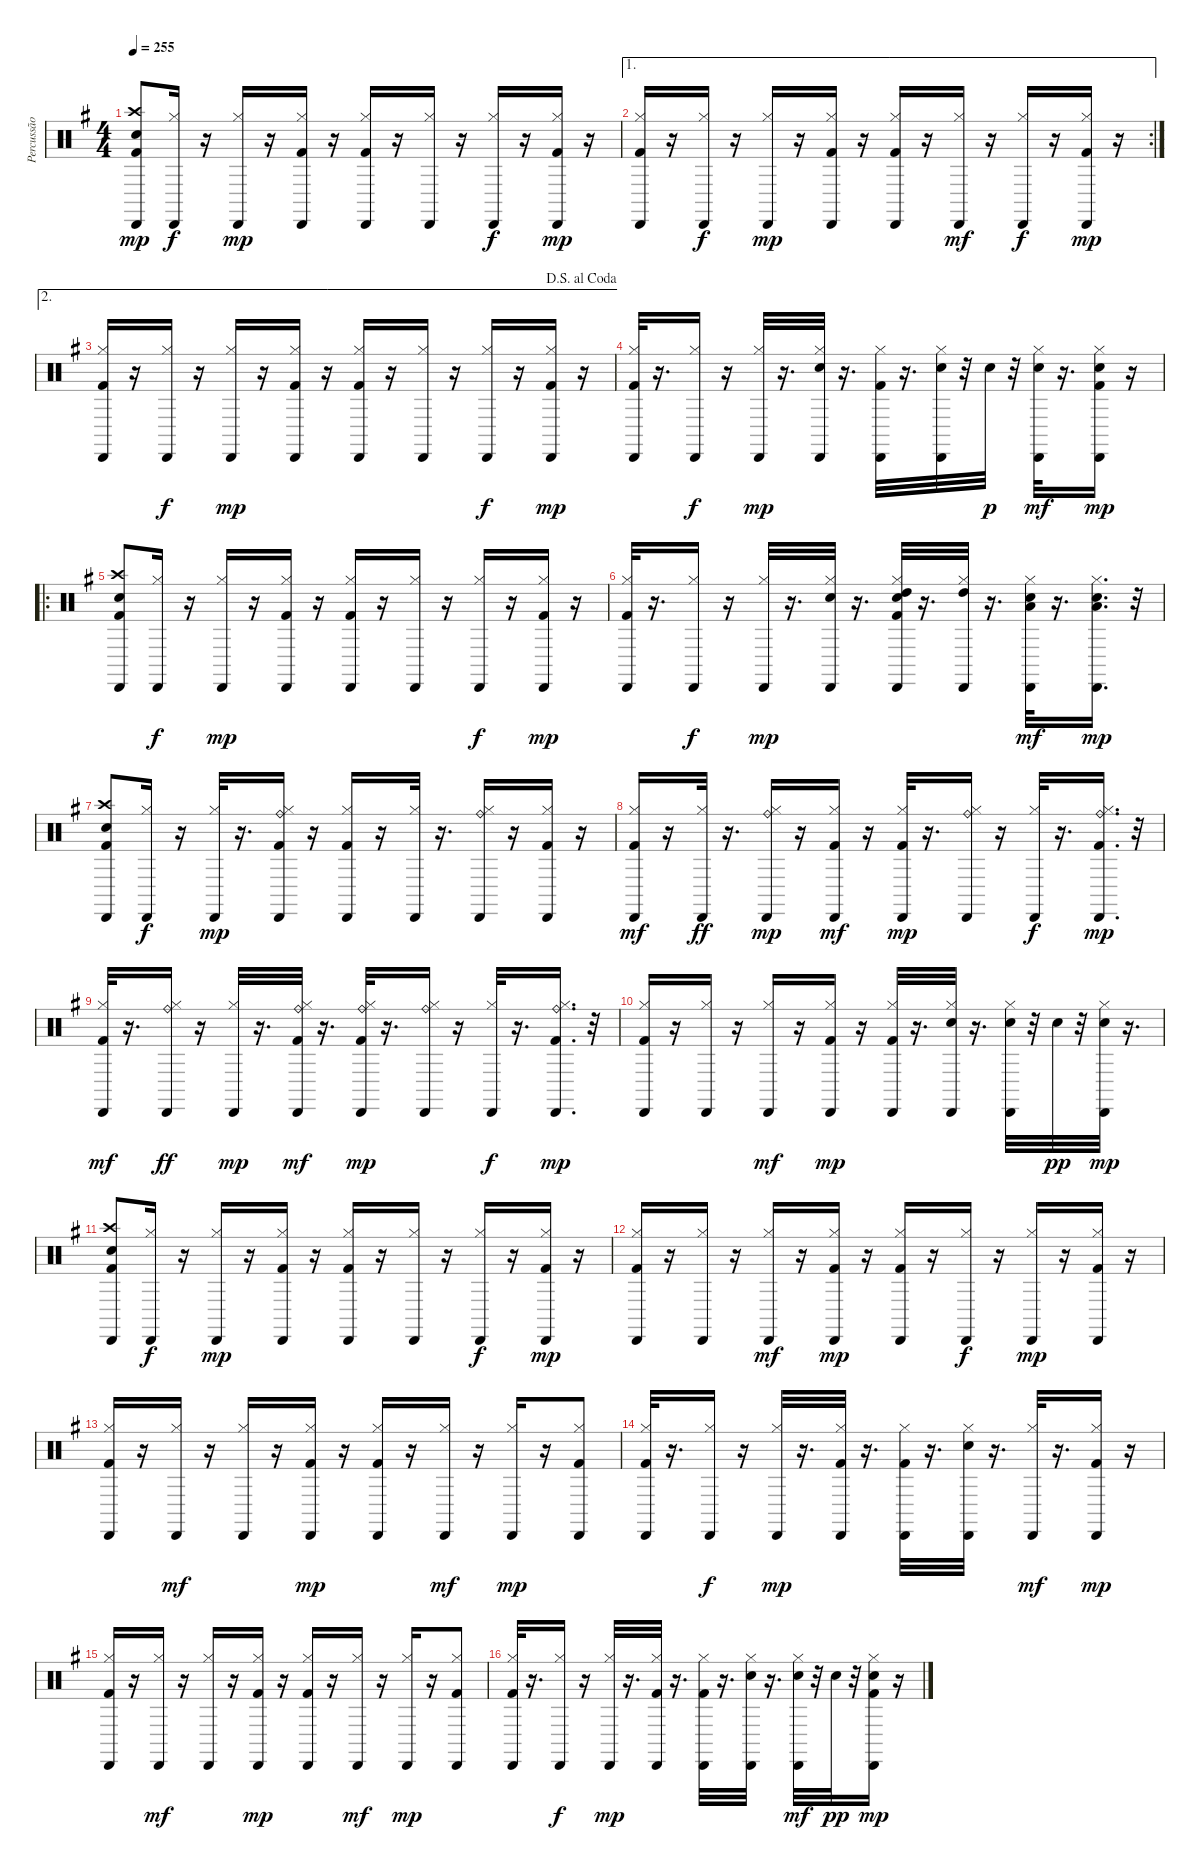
\track ("Percussão" "Percussão") {instrument percussion}
\staff {score}
\articulation defaults
\ts (4 4)
\tempo 255
\clef neutral
\ks g
("Electric Snare (hit)" "Crash high (hit)" "Kick (hit) 2" "Cabasa (hit)").8{dy mp} ("Hi-Hat (closed)" "Cabasa (hit)").16{dy f} r.16 ("Hi-Hat (closed)" "Cabasa (hit)").16{dy mp} r.16 ("Kick (hit) 2" "Hi-Hat (closed)" "Cabasa (hit)").16 r.16 ("Kick (hit) 2" "Hi-Hat (closed)" "Cabasa (hit)").16 r.16 ("Hi-Hat (closed)" "Cabasa (hit)").16 r.16 ("Hi-Hat (closed)" "Cabasa (hit)").16{dy f} r.16 ("Kick (hit) 2" "Hi-Hat (closed)" "Cabasa (hit)").16{dy mp} r.16 |
\ae 1
\rc 2
("Kick (hit) 2" "Hi-Hat (closed)" "Cabasa (hit)").16 r.16 ("Hi-Hat (closed)" "Cabasa (hit)").16{dy f} r.16 ("Hi-Hat (closed)" "Cabasa (hit)").16{dy mp} r.16 ("Kick (hit) 2" "Hi-Hat (closed)" "Cabasa (hit)").16 r.16 ("Kick (hit) 2" "Hi-Hat (closed)" "Cabasa (hit)").16 r.16 ("Hi-Hat (closed)" "Cabasa (hit)").16{dy mf} r.16 ("Hi-Hat (closed)" "Cabasa (hit)").16{dy f} r.16 ("Kick (hit) 2" "Hi-Hat (closed)" "Cabasa (hit)").16{dy mp} r.16 |
\ae 2
\jump dalsegnoalcoda
("Kick (hit) 2" "Hi-Hat (closed)" "Cabasa (hit)").16 r.16 ("Hi-Hat (closed)" "Cabasa (hit)").16{dy f} r.16 ("Hi-Hat (closed)" "Cabasa (hit)").16{dy mp} r.16 ("Kick (hit) 2" "Hi-Hat (closed)" "Cabasa (hit)").16 r.16 ("Kick (hit) 2" "Hi-Hat (closed)" "Cabasa (hit)").16 r.16 ("Hi-Hat (closed)" "Cabasa (hit)").16 r.16 ("Hi-Hat (closed)" "Cabasa (hit)").16{dy f} r.16 ("Kick (hit) 2" "Hi-Hat (closed)" "Cabasa (hit)").16{dy mp} r.16 |
("Kick (hit) 2" "Hi-Hat (closed)" "Cabasa (hit)").32 r.16{d} ("Hi-Hat (closed)" "Cabasa (hit)").16{dy f} r.16 ("Hi-Hat (closed)" "Cabasa (hit)").32{dy mp} r.16{d} ("Electric Snare (hit)" "Hi-Hat (closed)" "Cabasa (hit)").32 r.16{d} ("Kick (hit) 2" "Hi-Hat (closed)" "Cabasa (hit)").32 r.16{d} ("Electric Snare (hit)" "Hi-Hat (closed)" "Cabasa (hit)").32 r.32 "Snare (hit) 2".32{dy p} r.32 ("Electric Snare (hit)" "Hi-Hat (closed)" "Cabasa (hit)").32{dy mf} r.16{d} ("Electric Snare (hit)" "Kick (hit) 2" "Hi-Hat (closed)" "Cabasa (hit)").16{dy mp} r.16 |
\ro
("Electric Snare (hit)" "Crash high (hit)" "Kick (hit) 2" "Cabasa (hit)").8 ("Hi-Hat (closed)" "Cabasa (hit)").16{dy f} r.16 ("Hi-Hat (closed)" "Cabasa (hit)").16{dy mp} r.16 ("Kick (hit) 2" "Hi-Hat (closed)" "Cabasa (hit)").16 r.16 ("Kick (hit) 2" "Hi-Hat (closed)" "Cabasa (hit)").16 r.16 ("Hi-Hat (closed)" "Cabasa (hit)").16 r.16 ("Hi-Hat (closed)" "Cabasa (hit)").16{dy f} r.16 ("Kick (hit) 2" "Hi-Hat (closed)" "Cabasa (hit)").16{dy mp} r.16 |
("Kick (hit) 2" "Hi-Hat (closed)" "Cabasa (hit)").32 r.16{d} ("Hi-Hat (closed)" "Cabasa (hit)").16{dy f} r.16 ("Hi-Hat (closed)" "Cabasa (hit)").32{dy mp} r.16{d} ("Electric Snare (hit)" "Hi-Hat (closed)" "Cabasa (hit)").32 r.16{d} ("High Tom (hit)" "Electric Snare (hit)" "Kick (hit) 2" "Hi-Hat (closed)" "Cabasa (hit)").32 r.16{d} ("High Tom (hit)" "Hi-Hat (closed)" "Cabasa (hit)").32 r.16{d} ("Low Tom (hit)" "Electric Snare (hit)" "Hi-Hat (closed)" "Cabasa (hit)").32{dy mf} r.16{d} ("Low Tom (hit)" "Electric Snare (hit)" "Hi-Hat (closed)" "Cabasa (hit)").16{d dy mp} r.32 |
("Electric Snare (hit)" "Crash high (hit)" "Kick (hit) 2" "Cabasa (hit)").8 ("Hi-Hat (closed)" "Cabasa (hit)").16{dy f} r.16 ("Hi-Hat (closed)" "Cabasa (hit)").32{dy mp} r.16{d} ("Ride (bell)" "Kick (hit) 2" "Hi-Hat (closed)" "Cabasa (hit)").16 r.16 ("Kick (hit) 2" "Hi-Hat (closed)" "Cabasa (hit)").16 r.16 ("Hi-Hat (closed)" "Cabasa (hit)").32 r.16{d} ("Ride (bell)" "Hi-Hat (closed)" "Cabasa (hit)").16 r.16 ("Kick (hit) 2" "Hi-Hat (closed)" "Cabasa (hit)").16 r.16 |
("Kick (hit) 2" "Hi-Hat (closed)" "Cabasa (hit)").16{dy mf} r.16 ("Hi-Hat (closed)" "Cabasa (hit)").32{dy ff} r.16{d} ("Ride (bell)" "Hi-Hat (closed)" "Cabasa (hit)").16{dy mp} r.16 ("Kick (hit) 2" "Hi-Hat (closed)" "Cabasa (hit)").16{dy mf} r.16 ("Kick (hit) 2" "Hi-Hat (closed)" "Cabasa (hit)").32{dy mp} r.16{d} ("Ride (bell)" "Hi-Hat (closed)" "Cabasa (hit)").16 r.16 ("Hi-Hat (closed)" "Cabasa (hit)").32{dy f} r.16{d} ("Ride (bell)" "Kick (hit) 2" "Hi-Hat (closed)" "Cabasa (hit)").16{d dy mp} r.32 |
("Kick (hit) 2" "Hi-Hat (closed)" "Cabasa (hit)").32{dy mf} r.16{d} ("Ride (bell)" "Hi-Hat (closed)" "Cabasa (hit)").16{dy ff} r.16 ("Hi-Hat (closed)" "Cabasa (hit)").32{dy mp} r.16{d} ("Ride (bell)" "Kick (hit) 2" "Hi-Hat (closed)" "Cabasa (hit)").32{dy mf} r.16{d} ("Ride (bell)" "Kick (hit) 2" "Hi-Hat (closed)" "Cabasa (hit)").32{dy mp} r.16{d} ("Ride (bell)" "Hi-Hat (closed)" "Cabasa (hit)").16 r.16 ("Hi-Hat (closed)" "Cabasa (hit)").32{dy f} r.16{d} ("Ride (bell)" "Kick (hit) 2" "Hi-Hat (closed)" "Cabasa (hit)").16{d dy mp} r.32 |
("Kick (hit) 2" "Hi-Hat (closed)" "Cabasa (hit)").16 r.16 ("Hi-Hat (closed)" "Cabasa (hit)").16 r.16 ("Hi-Hat (closed)" "Cabasa (hit)").16{dy mf} r.16 ("Kick (hit) 2" "Hi-Hat (closed)" "Cabasa (hit)").16{dy mp} r.16 ("Kick (hit) 2" "Hi-Hat (closed)" "Cabasa (hit)").32 r.16{d} ("Snare (hit) 2" "Hi-Hat (closed)" "Cabasa (hit)").32 r.16{d} ("Electric Snare (hit)" "Hi-Hat (closed)" "Cabasa (hit)").32 r.32 "Snare (hit) 2".32{dy pp} r.32 ("Electric Snare (hit)" "Hi-Hat (closed)" "Cabasa (hit)").32{dy mp} r.16{d} |
("Electric Snare (hit)" "Crash high (hit)" "Kick (hit) 2" "Cabasa (hit)").8 ("Hi-Hat (closed)" "Cabasa (hit)").16{dy f} r.16 ("Hi-Hat (closed)" "Cabasa (hit)").16{dy mp} r.16 ("Kick (hit) 2" "Hi-Hat (closed)" "Cabasa (hit)").16 r.16 ("Kick (hit) 2" "Hi-Hat (closed)" "Cabasa (hit)").16 r.16 ("Hi-Hat (closed)" "Cabasa (hit)").16 r.16 ("Hi-Hat (closed)" "Cabasa (hit)").16{dy f} r.16 ("Kick (hit) 2" "Hi-Hat (closed)" "Cabasa (hit)").16{dy mp} r.16 |
("Kick (hit) 2" "Hi-Hat (closed)" "Cabasa (hit)").16 r.16 ("Hi-Hat (closed)" "Cabasa (hit)").16 r.16 ("Hi-Hat (closed)" "Cabasa (hit)").16{dy mf} r.16 ("Kick (hit) 2" "Hi-Hat (closed)" "Cabasa (hit)").16{dy mp} r.16 ("Kick (hit) 2" "Hi-Hat (closed)" "Cabasa (hit)").16 r.16 ("Hi-Hat (closed)" "Cabasa (hit)").16{dy f} r.16 ("Hi-Hat (closed)" "Cabasa (hit)").16{dy mp} r.16 ("Kick (hit) 2" "Hi-Hat (closed)" "Cabasa (hit)").16 r.16 |
("Kick (hit) 2" "Hi-Hat (closed)" "Cabasa (hit)").16 r.16 ("Hi-Hat (closed)" "Cabasa (hit)").16{dy mf} r.16 ("Hi-Hat (closed)" "Cabasa (hit)").16 r.16 ("Kick (hit) 2" "Hi-Hat (closed)" "Cabasa (hit)").16{dy mp} r.16 ("Kick (hit) 2" "Hi-Hat (closed)" "Cabasa (hit)").16 r.16 ("Hi-Hat (closed)" "Cabasa (hit)").16{dy mf} r.16 ("Hi-Hat (closed)" "Cabasa (hit)").16{dy mp} r.16 ("Kick (hit) 2" "Hi-Hat (closed)" "Cabasa (hit)").8 |
("Kick (hit) 2" "Hi-Hat (closed)" "Cabasa (hit)").32 r.16{d} ("Hi-Hat (closed)" "Cabasa (hit)").16{dy f} r.16 ("Hi-Hat (closed)" "Cabasa (hit)").32{dy mp} r.16{d} ("Kick (hit) 2" "Hi-Hat (closed)" "Cabasa (hit)").32 r.16{d} ("Kick (hit) 2" "Hi-Hat (closed)" "Cabasa (hit)").32 r.16{d} ("Electric Snare (hit)" "Hi-Hat (closed)" "Cabasa (hit)").32 r.16{d} ("Hi-Hat (closed)" "Cabasa (hit)").32{dy mf} r.16{d} ("Kick (hit) 2" "Hi-Hat (closed)" "Cabasa (hit)").16{dy mp} r.16 |
("Kick (hit) 2" "Hi-Hat (closed)" "Cabasa (hit)").16 r.16 ("Hi-Hat (closed)" "Cabasa (hit)").16{dy mf} r.16 ("Hi-Hat (closed)" "Cabasa (hit)").16 r.16 ("Kick (hit) 2" "Hi-Hat (closed)" "Cabasa (hit)").16{dy mp} r.16 ("Kick (hit) 2" "Hi-Hat (closed)" "Cabasa (hit)").16 r.16 ("Hi-Hat (closed)" "Cabasa (hit)").16{dy mf} r.16 ("Hi-Hat (closed)" "Cabasa (hit)").16{dy mp} r.16 ("Kick (hit) 2" "Hi-Hat (closed)" "Cabasa (hit)").8 |
("Kick (hit) 2" "Hi-Hat (closed)" "Cabasa (hit)").32 r.16{d} ("Hi-Hat (closed)" "Cabasa (hit)").16{dy f} r.16 ("Hi-Hat (closed)" "Cabasa (hit)").32{dy mp} r.16{d} ("Kick (hit) 2" "Hi-Hat (closed)" "Cabasa (hit)").32 r.16{d} ("Kick (hit) 2" "Hi-Hat (closed)" "Cabasa (hit)").32 r.16{d} ("Electric Snare (hit)" "Hi-Hat (closed)" "Cabasa (hit)").32 r.16{d} ("Electric Snare (hit)" "Hi-Hat (closed)" "Cabasa (hit)").32{dy mf} r.32 "Snare (hit) 2".32{dy pp} r.32 ("Electric Snare (hit)" "Kick (hit) 2" "Hi-Hat (closed)" "Cabasa (hit)").16{dy mp} r.16
